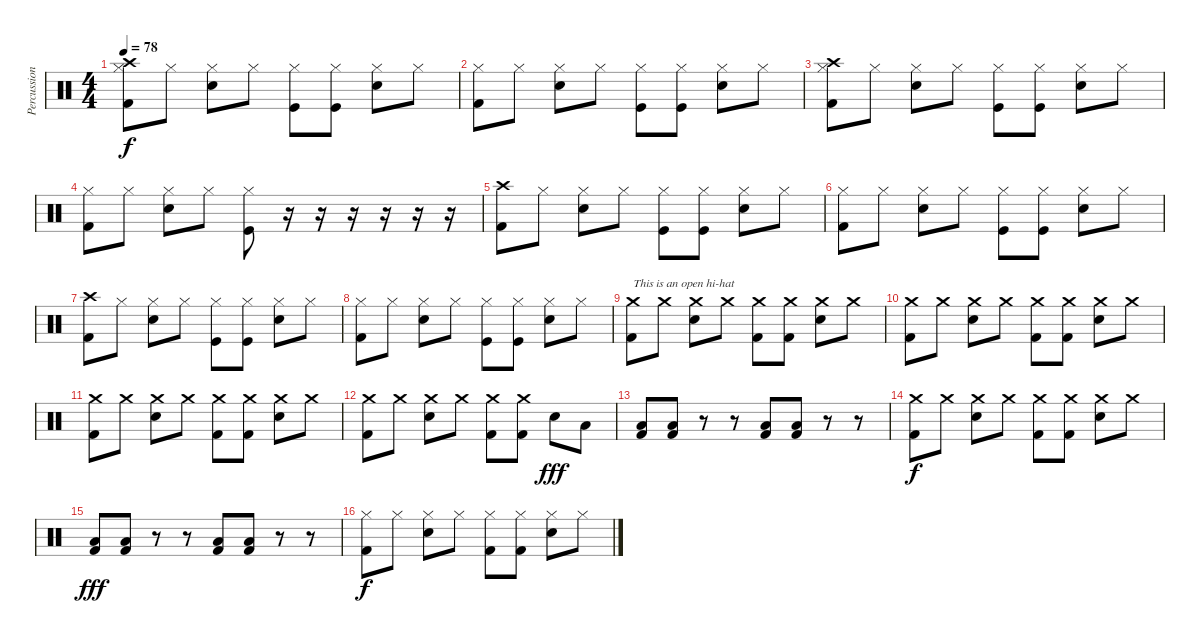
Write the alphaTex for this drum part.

\track ("Percussion" "Percussion") {instrument percussion}
\staff {score}
\articulation defaults
\ts (4 4)
\tempo 78
\clef neutral
\ks c
("Crash high (hit)" "Hi-Hat (closed)" "Kick (hit) 2").8{dy f} "Hi-Hat (closed)".8 ("Hi-Hat (closed)" "Electric Snare (hit)").8 "Hi-Hat (closed)".8 ("Hi-Hat (closed)" "Kick (hit)").8 ("Hi-Hat (closed)" "Kick (hit)").8 ("Hi-Hat (closed)" "Electric Snare (hit)").8 "Hi-Hat (closed)".8 |
("Hi-Hat (closed)" "Kick (hit) 2").8 "Hi-Hat (closed)".8 ("Hi-Hat (closed)" "Electric Snare (hit)").8 "Hi-Hat (closed)".8 ("Hi-Hat (closed)" "Kick (hit)").8 ("Hi-Hat (closed)" "Kick (hit)").8 ("Hi-Hat (closed)" "Electric Snare (hit)").8 "Hi-Hat (closed)".8 |
("Crash high (hit)" "Hi-Hat (closed)" "Kick (hit) 2").8 "Hi-Hat (closed)".8 ("Hi-Hat (closed)" "Electric Snare (hit)").8 "Hi-Hat (closed)".8 ("Hi-Hat (closed)" "Kick (hit)").8 ("Hi-Hat (closed)" "Kick (hit)").8 ("Hi-Hat (closed)" "Electric Snare (hit)").8 "Hi-Hat (closed)".8 |
("Hi-Hat (closed)" "Kick (hit) 2").8 "Hi-Hat (closed)".8 ("Hi-Hat (closed)" "Electric Snare (hit)").8 "Hi-Hat (closed)".8 ("Hi-Hat (closed)" "Kick (hit)").8 r.16 r.16 r.16 r.16 r.16 r.16 |
("Crash high (hit)" "Kick (hit) 2").8 "Hi-Hat (closed)".8 ("Hi-Hat (closed)" "Electric Snare (hit)").8 "Hi-Hat (closed)".8 ("Hi-Hat (closed)" "Kick (hit)").8 ("Hi-Hat (closed)" "Kick (hit)").8 ("Hi-Hat (closed)" "Electric Snare (hit)").8 "Hi-Hat (closed)".8 |
("Hi-Hat (closed)" "Kick (hit) 2").8 "Hi-Hat (closed)".8 ("Hi-Hat (closed)" "Electric Snare (hit)").8 "Hi-Hat (closed)".8 ("Hi-Hat (closed)" "Kick (hit)").8 ("Hi-Hat (closed)" "Kick (hit)").8 ("Hi-Hat (closed)" "Electric Snare (hit)").8 "Hi-Hat (closed)".8 |
("Crash high (hit)" "Kick (hit) 2").8 "Hi-Hat (closed)".8 ("Hi-Hat (closed)" "Electric Snare (hit)").8 "Hi-Hat (closed)".8 ("Hi-Hat (closed)" "Kick (hit)").8 ("Hi-Hat (closed)" "Kick (hit)").8 ("Hi-Hat (closed)" "Electric Snare (hit)").8 "Hi-Hat (closed)".8 |
("Hi-Hat (closed)" "Kick (hit) 2").8 "Hi-Hat (closed)".8 ("Hi-Hat (closed)" "Electric Snare (hit)").8 "Hi-Hat (closed)".8 ("Hi-Hat (closed)" "Kick (hit)").8 ("Hi-Hat (closed)" "Kick (hit)").8 ("Hi-Hat (closed)" "Electric Snare (hit)").8 "Hi-Hat (closed)".8 |
("Crash medium (hit)" "Kick (hit) 2").8{txt "This is an open hi-hat"} "Crash medium (hit)".8 ("Crash medium (hit)" "Snare (hit) 2").8 "Crash medium (hit)".8 ("Crash medium (hit)" "Kick (hit) 2").8 ("Crash medium (hit)" "Kick (hit) 2").8 ("Crash medium (hit)" "Snare (hit) 2").8 "Crash medium (hit)".8 |
("Crash medium (hit)" "Kick (hit) 2").8 "Crash medium (hit)".8 ("Crash medium (hit)" "Snare (hit) 2").8 "Crash medium (hit)".8 ("Crash medium (hit)" "Kick (hit) 2").8 ("Crash medium (hit)" "Kick (hit) 2").8 ("Crash medium (hit)" "Snare (hit) 2").8 "Crash medium (hit)".8 |
("Crash medium (hit)" "Kick (hit) 2").8 "Crash medium (hit)".8 ("Crash medium (hit)" "Snare (hit) 2").8 "Crash medium (hit)".8 ("Crash medium (hit)" "Kick (hit) 2").8 ("Crash medium (hit)" "Kick (hit) 2").8 ("Crash medium (hit)" "Snare (hit) 2").8 "Crash medium (hit)".8 |
("Crash medium (hit)" "Kick (hit) 2").8 "Crash medium (hit)".8 ("Crash medium (hit)" "Snare (hit) 2").8 "Crash medium (hit)".8 ("Crash medium (hit)" "Kick (hit) 2").8 ("Crash medium (hit)" "Kick (hit) 2").8 "Snare (hit) 2".8{dy fff} "Low Floor Tom (hit)".8 |
("Low Floor Tom (hit)" "Kick (hit) 2").8 ("Low Floor Tom (hit)" "Kick (hit) 2").8 r.8 r.8 ("Low Floor Tom (hit)" "Kick (hit) 2").8 ("Low Floor Tom (hit)" "Kick (hit) 2").8 r.8 r.8 |
("Crash medium (hit)" "Kick (hit) 2").8{dy f} "Crash medium (hit)".8 ("Crash medium (hit)" "Snare (hit) 2").8 "Crash medium (hit)".8 ("Crash medium (hit)" "Kick (hit) 2").8 ("Crash medium (hit)" "Kick (hit) 2").8 ("Crash medium (hit)" "Snare (hit) 2").8 "Crash medium (hit)".8 |
("Low Floor Tom (hit)" "Kick (hit) 2").8{dy fff} ("Low Floor Tom (hit)" "Kick (hit) 2").8 r.8 r.8 ("Low Floor Tom (hit)" "Kick (hit) 2").8 ("Low Floor Tom (hit)" "Kick (hit) 2").8 r.8 r.8 |
("Hi-Hat (closed)" "Kick (hit) 2").8{dy f} "Hi-Hat (closed)".8 ("Hi-Hat (closed)" "Snare (hit) 2").8 "Hi-Hat (closed)".8 ("Hi-Hat (closed)" "Kick (hit) 2").8 ("Hi-Hat (closed)" "Kick (hit) 2").8 ("Hi-Hat (closed)" "Snare (hit) 2").8 "Hi-Hat (closed)".8
